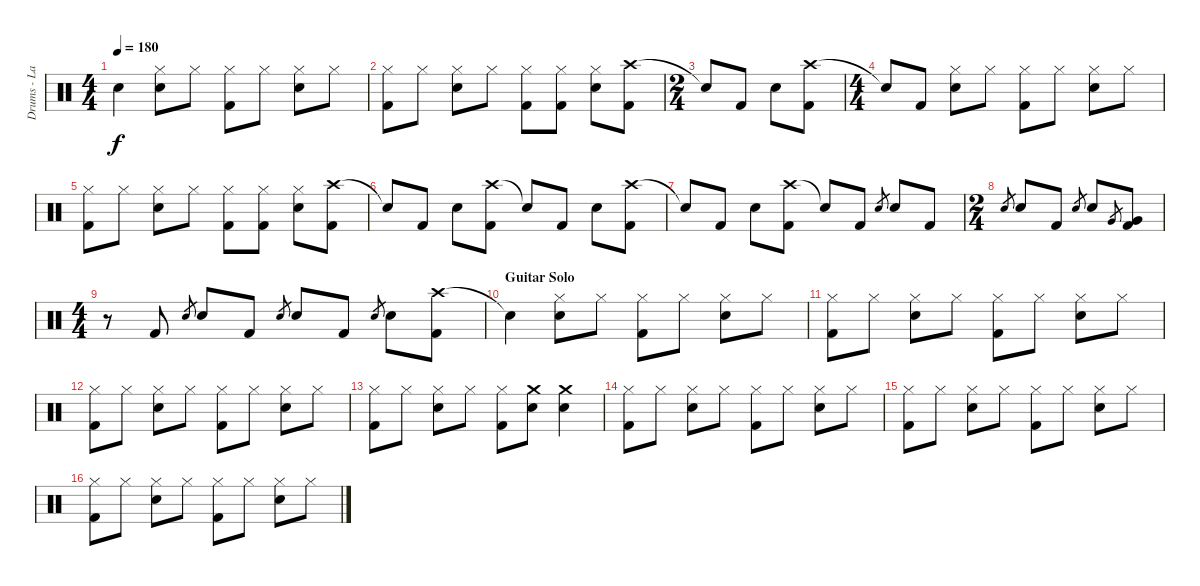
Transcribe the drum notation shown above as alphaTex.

\track ("Drums - Lars" "Drums - La") {instrument percussion}
\staff {score}
\articulation defaults
\ts (4 4)
\tempo 180
\clef neutral
\ks c "Snare (hit)"{t}.4{dy f}
("Hi-Hat (closed)" "Snare (hit) 2").8 "Hi-Hat (closed)".8 ("Hi-Hat (closed)" "Kick (hit) 2").8 "Hi-Hat (closed)".8 ("Hi-Hat (closed)" "Snare (hit) 2").8 "Hi-Hat (closed)".8 |
("Hi-Hat (closed)" "Kick (hit) 2").8 "Hi-Hat (closed)".8 ("Hi-Hat (closed)" "Snare (hit) 2").8 "Hi-Hat (closed)".8 ("Hi-Hat (closed)" "Kick (hit) 2").8 ("Hi-Hat (closed)" "Kick (hit) 2").8 ("Hi-Hat (closed)" "Snare (hit) 2").8 ("Crash high (hit)" "Kick (hit) 2").8 |
\ts (2 4)
"Snare (hit)"{t}.8 "Kick (hit) 2".8 "Snare (hit) 2".8 ("Crash high (hit)" "Kick (hit) 2").8 |
\ts (4 4)
"Snare (hit)"{t}.8 "Kick (hit) 2".8 ("Hi-Hat (closed)" "Snare (hit) 2").8 "Hi-Hat (closed)".8 ("Hi-Hat (closed)" "Kick (hit) 2").8 "Hi-Hat (closed)".8 ("Hi-Hat (closed)" "Snare (hit) 2").8 "Hi-Hat (closed)".8 |
("Hi-Hat (closed)" "Kick (hit) 2").8 "Hi-Hat (closed)".8 ("Hi-Hat (closed)" "Snare (hit) 2").8 "Hi-Hat (closed)".8 ("Hi-Hat (closed)" "Kick (hit) 2").8 ("Hi-Hat (closed)" "Kick (hit) 2").8 ("Hi-Hat (closed)" "Snare (hit) 2").8 ("Crash high (hit)" "Kick (hit) 2").8 |
"Snare (hit)"{t}.8 "Kick (hit) 2".8 "Snare (hit) 2".8 ("Crash high (hit)" "Kick (hit) 2").8 "Snare (hit)"{t}.8 "Kick (hit) 2".8 "Snare (hit) 2".8 ("Crash high (hit)" "Kick (hit) 2").8 |
"Snare (hit)"{t}.8 "Kick (hit) 2".8 "Snare (hit) 2".8 ("Crash high (hit)" "Kick (hit) 2").8 "Snare (hit)"{t}.8 "Kick (hit) 2".8 "Snare (hit) 2".8{gr} "Snare (hit) 2".8 "Kick (hit) 2".8 |
\ts (2 4)
"Snare (hit) 2".8{gr} "Snare (hit) 2".8 "Kick (hit) 2".8 "Snare (hit) 2".8{gr} "Snare (hit) 2".8 "Very Low Tom (hit)".8{gr} ("Very Low Tom (hit)" "Kick (hit) 2").8 |
\ts (4 4)
r.8 "Kick (hit) 2".8 "Snare (hit) 2".8{gr} "Snare (hit) 2".8 "Kick (hit) 2".8 "Snare (hit) 2".8{gr} "Snare (hit) 2".8 "Kick (hit) 2".8 "Snare (hit) 2".8{gr} "Snare (hit) 2".8 ("Crash high (hit)" "Kick (hit) 2").8 |
\section ("" "Guitar Solo")
"Snare (hit)"{t}.4 ("Hi-Hat (closed)" "Snare (hit) 2").8 "Hi-Hat (closed)".8 ("Hi-Hat (closed)" "Kick (hit) 2").8 "Hi-Hat (closed)".8 ("Hi-Hat (closed)" "Snare (hit) 2").8 "Hi-Hat (closed)".8 |
("Hi-Hat (closed)" "Kick (hit) 2").8 "Hi-Hat (closed)".8 ("Hi-Hat (closed)" "Snare (hit) 2").8 "Hi-Hat (closed)".8 ("Hi-Hat (closed)" "Kick (hit) 2").8 "Hi-Hat (closed)".8 ("Hi-Hat (closed)" "Snare (hit) 2").8 "Hi-Hat (closed)".8 |
("Hi-Hat (closed)" "Kick (hit) 2").8 "Hi-Hat (closed)".8 ("Hi-Hat (closed)" "Snare (hit) 2").8 "Hi-Hat (closed)".8 ("Hi-Hat (closed)" "Kick (hit) 2").8 "Hi-Hat (closed)".8 ("Hi-Hat (closed)" "Snare (hit) 2").8 "Hi-Hat (closed)".8 |
("Hi-Hat (closed)" "Kick (hit) 2").8 "Hi-Hat (closed)".8 ("Hi-Hat (closed)" "Snare (hit) 2").8 "Hi-Hat (closed)".8 ("Hi-Hat (closed)" "Kick (hit) 2").8 ("Crash medium (hit)" "Snare (hit) 2").8 ("Crash medium (hit)" "Snare (hit) 2").4 |
("Hi-Hat (closed)" "Kick (hit) 2").8 "Hi-Hat (closed)".8 ("Hi-Hat (closed)" "Snare (hit) 2").8 "Hi-Hat (closed)".8 ("Hi-Hat (closed)" "Kick (hit) 2").8 "Hi-Hat (closed)".8 ("Hi-Hat (closed)" "Snare (hit) 2").8 "Hi-Hat (closed)".8 |
("Hi-Hat (closed)" "Kick (hit) 2").8 "Hi-Hat (closed)".8 ("Hi-Hat (closed)" "Snare (hit) 2").8 "Hi-Hat (closed)".8 ("Hi-Hat (closed)" "Kick (hit) 2").8 "Hi-Hat (closed)".8 ("Hi-Hat (closed)" "Snare (hit) 2").8 "Hi-Hat (closed)".8 |
("Hi-Hat (closed)" "Kick (hit) 2").8 "Hi-Hat (closed)".8 ("Hi-Hat (closed)" "Snare (hit) 2").8 "Hi-Hat (closed)".8 ("Hi-Hat (closed)" "Kick (hit) 2").8 "Hi-Hat (closed)".8 ("Hi-Hat (closed)" "Snare (hit) 2").8 "Hi-Hat (closed)".8
